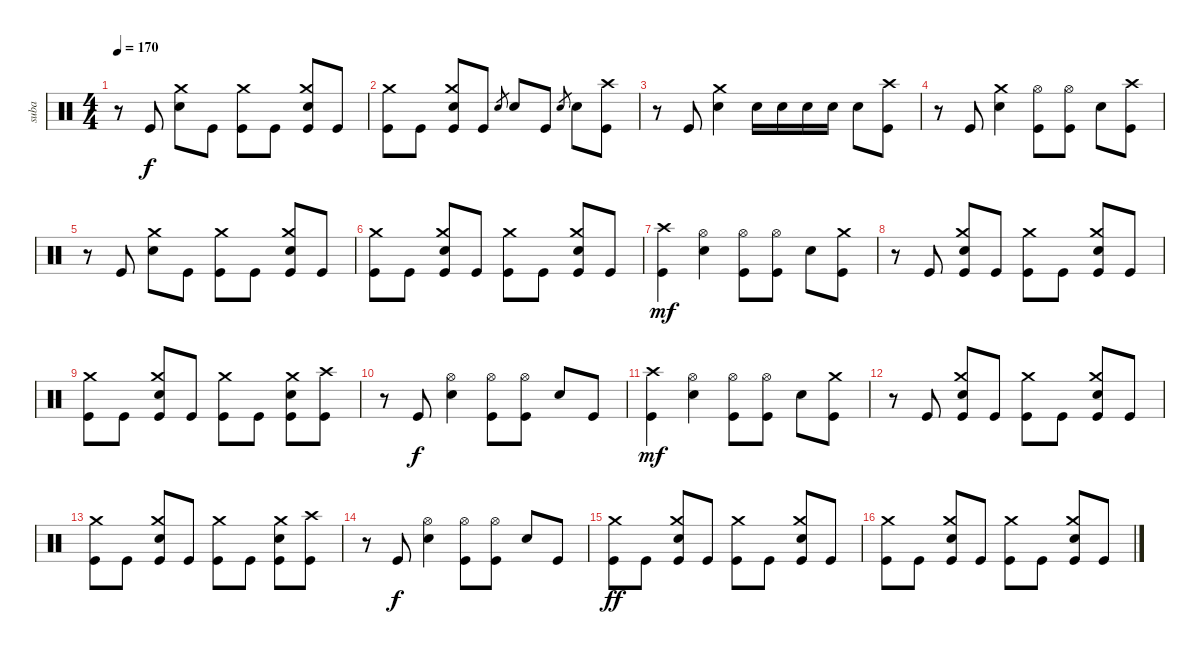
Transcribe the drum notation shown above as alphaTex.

\track ("suba" "suba") {instrument percussion}
\staff {score}
\articulation defaults
\ts (4 4)
\tempo 170
\clef neutral
\ks c
r.8{dy f} "Kick (hit)".8 ("Crash medium (hit)" "Electric Snare (hit)").8 "Kick (hit)".8 ("Crash medium (hit)" "Kick (hit)").8 "Kick (hit)".8 ("Crash medium (hit)" "Electric Snare (hit)" "Kick (hit)").8 "Kick (hit)".8 |
("Crash medium (hit)" "Kick (hit)").8 "Kick (hit)".8 ("Crash medium (hit)" "Electric Snare (hit)" "Kick (hit)").8 "Kick (hit)".8 "Electric Snare (hit)".8{gr} "Electric Snare (hit)".8 "Kick (hit)".8 "Electric Snare (hit)".8{gr} "Electric Snare (hit)".8 ("Crash high (hit)" "Kick (hit)").8 |
r.8 "Kick (hit)".8 ("Crash medium (hit)" "Electric Snare (hit)").4 "Electric Snare (hit)".16 "Electric Snare (hit)".16 "Electric Snare (hit)".16 "Electric Snare (hit)".16 "Electric Snare (hit)".8 ("Crash high (hit)" "Kick (hit)").8 |
r.8 "Kick (hit)".8 ("Crash medium (hit)" "Electric Snare (hit)").4 ("Hi-Hat (open)" "Kick (hit)").8 ("Hi-Hat (open)" "Kick (hit)").8 "Electric Snare (hit)".8 ("Crash high (hit)" "Kick (hit)").8 |
r.8 "Kick (hit)".8 ("Crash medium (hit)" "Electric Snare (hit)").8 "Kick (hit)".8 ("Crash medium (hit)" "Kick (hit)").8 "Kick (hit)".8 ("Crash medium (hit)" "Electric Snare (hit)" "Kick (hit)").8 "Kick (hit)".8 |
("Crash medium (hit)" "Kick (hit)").8 "Kick (hit)".8 ("Crash medium (hit)" "Electric Snare (hit)" "Kick (hit)").8 "Kick (hit)".8 ("Crash medium (hit)" "Kick (hit)").8 "Kick (hit)".8 ("Crash medium (hit)" "Electric Snare (hit)" "Kick (hit)").8 "Kick (hit)".8 |
("Crash high (hit)" "Kick (hit)").4{dy mf} ("Hi-Hat (open)" "Electric Snare (hit)").4 ("Hi-Hat (open)" "Kick (hit)").8 ("Hi-Hat (open)" "Kick (hit)").8 "Electric Snare (hit)".8 ("Crash medium (hit)" "Kick (hit)").8 |
r.8 "Kick (hit)".8 ("Crash medium (hit)" "Electric Snare (hit)" "Kick (hit)").8 "Kick (hit)".8 ("Crash medium (hit)" "Kick (hit)").8 "Kick (hit)".8 ("Crash medium (hit)" "Electric Snare (hit)" "Kick (hit)").8 "Kick (hit)".8 |
("Crash medium (hit)" "Kick (hit)").8 "Kick (hit)".8 ("Crash medium (hit)" "Electric Snare (hit)" "Kick (hit)").8 "Kick (hit)".8 ("Crash medium (hit)" "Kick (hit)").8 "Kick (hit)".8 ("Crash medium (hit)" "Electric Snare (hit)" "Kick (hit)").8 ("Crash high (hit)" "Kick (hit)").8 |
r.8 "Kick (hit)".8{dy f} ("Hi-Hat (open)" "Electric Snare (hit)").4 ("Hi-Hat (open)" "Kick (hit)").8 ("Hi-Hat (open)" "Kick (hit)").8 "Electric Snare (hit)".8 "Kick (hit)".8 |
("Crash high (hit)" "Kick (hit)").4{dy mf} ("Hi-Hat (open)" "Electric Snare (hit)").4 ("Hi-Hat (open)" "Kick (hit)").8 ("Hi-Hat (open)" "Kick (hit)").8 "Electric Snare (hit)".8 ("Crash medium (hit)" "Kick (hit)").8 |
r.8 "Kick (hit)".8 ("Crash medium (hit)" "Electric Snare (hit)" "Kick (hit)").8 "Kick (hit)".8 ("Crash medium (hit)" "Kick (hit)").8 "Kick (hit)".8 ("Crash medium (hit)" "Electric Snare (hit)" "Kick (hit)").8 "Kick (hit)".8 |
("Crash medium (hit)" "Kick (hit)").8 "Kick (hit)".8 ("Crash medium (hit)" "Electric Snare (hit)" "Kick (hit)").8 "Kick (hit)".8 ("Crash medium (hit)" "Kick (hit)").8 "Kick (hit)".8 ("Crash medium (hit)" "Electric Snare (hit)" "Kick (hit)").8 ("Crash high (hit)" "Kick (hit)").8 |
r.8 "Kick (hit)".8{dy f} ("Hi-Hat (open)" "Electric Snare (hit)").4 ("Hi-Hat (open)" "Kick (hit)").8 ("Hi-Hat (open)" "Kick (hit)").8 "Electric Snare (hit)".8 "Kick (hit)".8 |
("Crash medium (hit)" "Kick (hit)").8{dy ff} "Kick (hit)".8 ("Crash medium (hit)" "Electric Snare (hit)" "Kick (hit)").8 "Kick (hit)".8 ("Crash medium (hit)" "Kick (hit)").8 "Kick (hit)".8 ("Crash medium (hit)" "Electric Snare (hit)" "Kick (hit)").8 "Kick (hit)".8 |
("Crash medium (hit)" "Kick (hit)").8 "Kick (hit)".8 ("Crash medium (hit)" "Electric Snare (hit)" "Kick (hit)").8 "Kick (hit)".8 ("Crash medium (hit)" "Kick (hit)").8 "Kick (hit)".8 ("Crash medium (hit)" "Electric Snare (hit)" "Kick (hit)").8 "Kick (hit)".8
